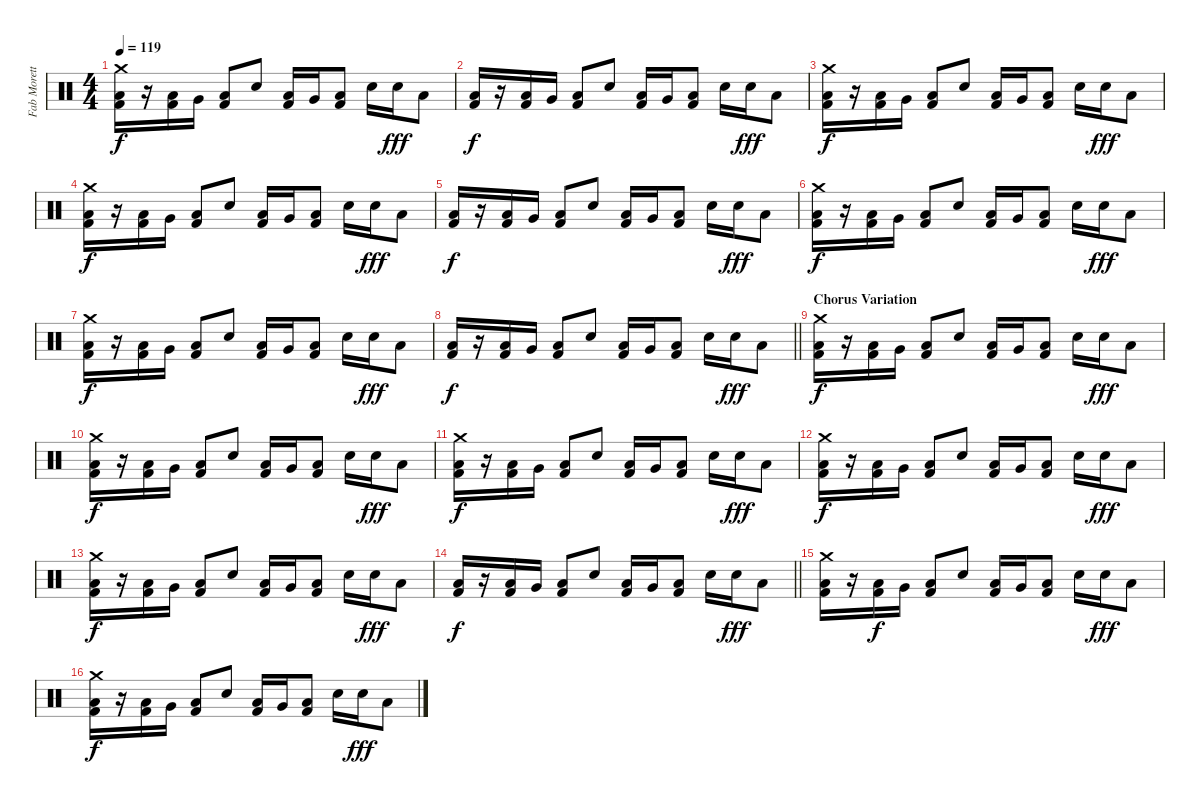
\track ("Fab Moretti" "Fab Morett") {instrument percussion}
\staff {score}
\articulation defaults
\ts (4 4)
\tempo 119
\clef neutral
\ks c
("Crash medium (hit)" "Low Floor Tom (hit)" "Kick (hit) 2").16{dy f} r.16 ("Low Floor Tom (hit)" "Kick (hit) 2").16 "Very Low Tom (hit)".16 ("Low Floor Tom (hit)" "Kick (hit) 2").8 "Electric Snare (hit)".8 ("Low Floor Tom (hit)" "Kick (hit) 2").16 "Very Low Tom (hit)".16 ("Low Floor Tom (hit)" "Kick (hit) 2").8 "Electric Snare (hit)".16 "Electric Snare (hit)".16{dy fff} "Low Floor Tom (hit)".8 |
("Low Floor Tom (hit)" "Kick (hit) 2").16{dy f} r.16 ("Low Floor Tom (hit)" "Kick (hit) 2").16 "Very Low Tom (hit)".16 ("Low Floor Tom (hit)" "Kick (hit) 2").8 "Electric Snare (hit)".8 ("Low Floor Tom (hit)" "Kick (hit) 2").16 "Very Low Tom (hit)".16 ("Low Floor Tom (hit)" "Kick (hit) 2").8 "Electric Snare (hit)".16 "Electric Snare (hit)".16{dy fff} "Low Floor Tom (hit)".8 |
("Crash medium (hit)" "Low Floor Tom (hit)" "Kick (hit) 2").16{dy f} r.16 ("Low Floor Tom (hit)" "Kick (hit) 2").16 "Very Low Tom (hit)".16 ("Low Floor Tom (hit)" "Kick (hit) 2").8 "Electric Snare (hit)".8 ("Low Floor Tom (hit)" "Kick (hit) 2").16 "Very Low Tom (hit)".16 ("Low Floor Tom (hit)" "Kick (hit) 2").8 "Electric Snare (hit)".16 "Electric Snare (hit)".16{dy fff} "Low Floor Tom (hit)".8 |
("Crash medium (hit)" "Low Floor Tom (hit)" "Kick (hit) 2").16{dy f} r.16 ("Low Floor Tom (hit)" "Kick (hit) 2").16 "Very Low Tom (hit)".16 ("Low Floor Tom (hit)" "Kick (hit) 2").8 "Electric Snare (hit)".8 ("Low Floor Tom (hit)" "Kick (hit) 2").16 "Very Low Tom (hit)".16 ("Low Floor Tom (hit)" "Kick (hit) 2").8 "Electric Snare (hit)".16 "Electric Snare (hit)".16{dy fff} "Low Floor Tom (hit)".8 |
("Low Floor Tom (hit)" "Kick (hit) 2").16{dy f} r.16 ("Low Floor Tom (hit)" "Kick (hit) 2").16 "Very Low Tom (hit)".16 ("Low Floor Tom (hit)" "Kick (hit) 2").8 "Electric Snare (hit)".8 ("Low Floor Tom (hit)" "Kick (hit) 2").16 "Very Low Tom (hit)".16 ("Low Floor Tom (hit)" "Kick (hit) 2").8 "Electric Snare (hit)".16 "Electric Snare (hit)".16{dy fff} "Low Floor Tom (hit)".8 |
("Crash medium (hit)" "Low Floor Tom (hit)" "Kick (hit) 2").16{dy f} r.16 ("Low Floor Tom (hit)" "Kick (hit) 2").16 "Very Low Tom (hit)".16 ("Low Floor Tom (hit)" "Kick (hit) 2").8 "Electric Snare (hit)".8 ("Low Floor Tom (hit)" "Kick (hit) 2").16 "Very Low Tom (hit)".16 ("Low Floor Tom (hit)" "Kick (hit) 2").8 "Electric Snare (hit)".16 "Electric Snare (hit)".16{dy fff} "Low Floor Tom (hit)".8 |
("Crash medium (hit)" "Low Floor Tom (hit)" "Kick (hit) 2").16{dy f} r.16 ("Low Floor Tom (hit)" "Kick (hit) 2").16 "Very Low Tom (hit)".16 ("Low Floor Tom (hit)" "Kick (hit) 2").8 "Electric Snare (hit)".8 ("Low Floor Tom (hit)" "Kick (hit) 2").16 "Very Low Tom (hit)".16 ("Low Floor Tom (hit)" "Kick (hit) 2").8 "Electric Snare (hit)".16 "Electric Snare (hit)".16{dy fff} "Low Floor Tom (hit)".8 |
\barLineRight lightlight
("Low Floor Tom (hit)" "Kick (hit) 2").16{dy f} r.16 ("Low Floor Tom (hit)" "Kick (hit) 2").16 "Very Low Tom (hit)".16 ("Low Floor Tom (hit)" "Kick (hit) 2").8 "Electric Snare (hit)".8 ("Low Floor Tom (hit)" "Kick (hit) 2").16 "Very Low Tom (hit)".16 ("Low Floor Tom (hit)" "Kick (hit) 2").8 "Electric Snare (hit)".16 "Electric Snare (hit)".16{dy fff} "Low Floor Tom (hit)".8 |
\section ("" "Chorus Variation")
("Crash medium (hit)" "Low Floor Tom (hit)" "Kick (hit) 2").16{dy f} r.16 ("Low Floor Tom (hit)" "Kick (hit) 2").16 "Very Low Tom (hit)".16 ("Low Floor Tom (hit)" "Kick (hit) 2").8 "Electric Snare (hit)".8 ("Low Floor Tom (hit)" "Kick (hit) 2").16 "Very Low Tom (hit)".16 ("Low Floor Tom (hit)" "Kick (hit) 2").8 "Electric Snare (hit)".16 "Electric Snare (hit)".16{dy fff} "Low Floor Tom (hit)".8 |
("Crash medium (hit)" "Low Floor Tom (hit)" "Kick (hit) 2").16{dy f} r.16 ("Low Floor Tom (hit)" "Kick (hit) 2").16 "Very Low Tom (hit)".16 ("Low Floor Tom (hit)" "Kick (hit) 2").8 "Electric Snare (hit)".8 ("Low Floor Tom (hit)" "Kick (hit) 2").16 "Very Low Tom (hit)".16 ("Low Floor Tom (hit)" "Kick (hit) 2").8 "Electric Snare (hit)".16 "Electric Snare (hit)".16{dy fff} "Low Floor Tom (hit)".8 |
("Crash medium (hit)" "Low Floor Tom (hit)" "Kick (hit) 2").16{dy f} r.16 ("Low Floor Tom (hit)" "Kick (hit) 2").16 "Very Low Tom (hit)".16 ("Low Floor Tom (hit)" "Kick (hit) 2").8 "Electric Snare (hit)".8 ("Low Floor Tom (hit)" "Kick (hit) 2").16 "Very Low Tom (hit)".16 ("Low Floor Tom (hit)" "Kick (hit) 2").8 "Electric Snare (hit)".16 "Electric Snare (hit)".16{dy fff} "Low Floor Tom (hit)".8 |
("Crash medium (hit)" "Low Floor Tom (hit)" "Kick (hit) 2").16{dy f} r.16 ("Low Floor Tom (hit)" "Kick (hit) 2").16 "Very Low Tom (hit)".16 ("Low Floor Tom (hit)" "Kick (hit) 2").8 "Electric Snare (hit)".8 ("Low Floor Tom (hit)" "Kick (hit) 2").16 "Very Low Tom (hit)".16 ("Low Floor Tom (hit)" "Kick (hit) 2").8 "Electric Snare (hit)".16 "Electric Snare (hit)".16{dy fff} "Low Floor Tom (hit)".8 |
("Crash medium (hit)" "Low Floor Tom (hit)" "Kick (hit) 2").16{dy f} r.16 ("Low Floor Tom (hit)" "Kick (hit) 2").16 "Very Low Tom (hit)".16 ("Low Floor Tom (hit)" "Kick (hit) 2").8 "Electric Snare (hit)".8 ("Low Floor Tom (hit)" "Kick (hit) 2").16 "Very Low Tom (hit)".16 ("Low Floor Tom (hit)" "Kick (hit) 2").8 "Electric Snare (hit)".16 "Electric Snare (hit)".16{dy fff} "Low Floor Tom (hit)".8 |
\barLineRight lightlight
("Low Floor Tom (hit)" "Kick (hit) 2").16{dy f} r.16 ("Low Floor Tom (hit)" "Kick (hit) 2").16 "Very Low Tom (hit)".16 ("Low Floor Tom (hit)" "Kick (hit) 2").8 "Electric Snare (hit)".8 ("Low Floor Tom (hit)" "Kick (hit) 2").16 "Very Low Tom (hit)".16 ("Low Floor Tom (hit)" "Kick (hit) 2").8 "Electric Snare (hit)".16 "Electric Snare (hit)".16{dy fff} "Low Floor Tom (hit)".8 |
("Crash medium (hit)" "Low Floor Tom (hit)" "Kick (hit) 2").16 r.16 ("Low Floor Tom (hit)" "Kick (hit) 2").16{dy f} "Very Low Tom (hit)".16 ("Low Floor Tom (hit)" "Kick (hit) 2").8 "Electric Snare (hit)".8 ("Low Floor Tom (hit)" "Kick (hit) 2").16 "Very Low Tom (hit)".16 ("Low Floor Tom (hit)" "Kick (hit) 2").8 "Electric Snare (hit)".16 "Electric Snare (hit)".16{dy fff} "Low Floor Tom (hit)".8 |
("Crash medium (hit)" "Low Floor Tom (hit)" "Kick (hit) 2").16{dy f} r.16 ("Low Floor Tom (hit)" "Kick (hit) 2").16 "Very Low Tom (hit)".16 ("Low Floor Tom (hit)" "Kick (hit) 2").8 "Electric Snare (hit)".8 ("Low Floor Tom (hit)" "Kick (hit) 2").16 "Very Low Tom (hit)".16 ("Low Floor Tom (hit)" "Kick (hit) 2").8 "Electric Snare (hit)".16 "Electric Snare (hit)".16{dy fff} "Low Floor Tom (hit)".8
